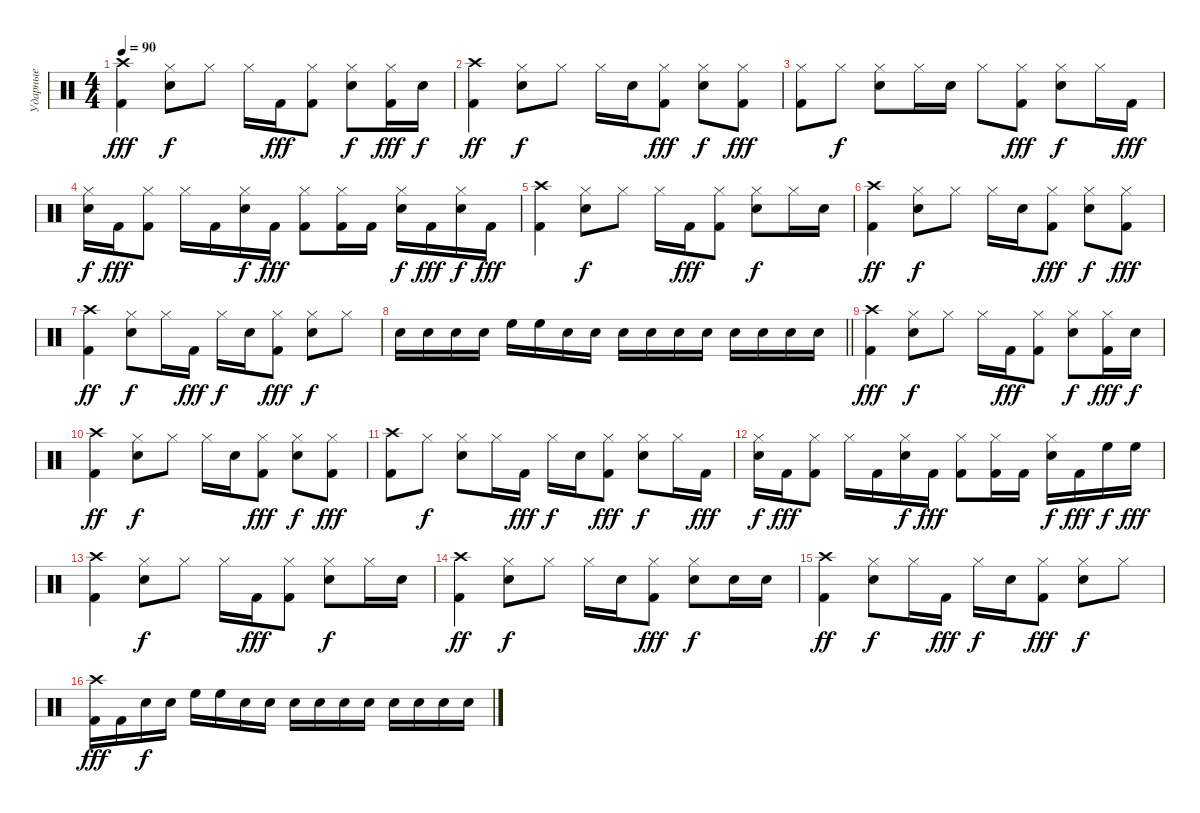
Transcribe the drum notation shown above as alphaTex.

\track ("Ударные" "Ударные") {instrument percussion}
\staff {score}
\articulation defaults
\ts (4 4)
\tempo 90
\clef neutral
\ks c
("Kick (hit) 2" "Crash high (hit)").4{dy fff} ("Snare (hit) 2" "Hi-Hat (closed)").8{dy f} "Hi-Hat (closed)".8 "Hi-Hat (closed)".16 "Kick (hit) 2".16{dy fff} ("Kick (hit) 2" "Hi-Hat (closed)").8 ("Snare (hit) 2" "Hi-Hat (closed)").8{dy f} ("Kick (hit) 2" "Hi-Hat (closed)").16{dy fff} "Snare (hit) 2".16{dy f} |
("Kick (hit) 2" "Crash high (hit)").4{dy ff} ("Snare (hit) 2" "Hi-Hat (closed)").8{dy f} "Hi-Hat (closed)".8 "Hi-Hat (closed)".16 "Snare (hit) 2".16 ("Kick (hit) 2" "Hi-Hat (closed)").8{dy fff} ("Snare (hit) 2" "Hi-Hat (closed)").8{dy f} ("Kick (hit) 2" "Hi-Hat (closed)").8{dy fff} |
("Kick (hit) 2" "Hi-Hat (closed)").8 "Hi-Hat (closed)".8{dy f} ("Snare (hit) 2" "Hi-Hat (closed)").8 "Hi-Hat (closed)".16 "Snare (hit) 2".16 "Hi-Hat (closed)".8 ("Kick (hit) 2" "Hi-Hat (closed)").8{dy fff} ("Snare (hit) 2" "Hi-Hat (closed)").8{dy f} "Hi-Hat (closed)".16 "Kick (hit) 2".16{dy fff} |
("Snare (hit) 2" "Hi-Hat (closed)").16{dy f} "Kick (hit) 2".16{dy fff} ("Kick (hit) 2" "Hi-Hat (closed)").8 "Hi-Hat (closed)".16 "Kick (hit) 2".16 ("Snare (hit) 2" "Hi-Hat (closed)").16{dy f} "Kick (hit) 2".16{dy fff} ("Kick (hit) 2" "Hi-Hat (closed)").8 ("Kick (hit) 2" "Hi-Hat (closed)").16 "Kick (hit) 2".16 ("Snare (hit) 2" "Hi-Hat (closed)").16{dy f} "Kick (hit) 2".16{dy fff} ("Snare (hit) 2" "Hi-Hat (closed)").16{dy f} "Kick (hit) 2".16{dy fff} |
("Kick (hit) 2" "Crash high (hit)").4 ("Snare (hit) 2" "Hi-Hat (closed)").8{dy f} "Hi-Hat (closed)".8 "Hi-Hat (closed)".16 "Kick (hit) 2".16{dy fff} ("Kick (hit) 2" "Hi-Hat (closed)").8 ("Snare (hit) 2" "Hi-Hat (closed)").8{dy f} "Hi-Hat (closed)".16 "Snare (hit) 2".16 |
("Kick (hit) 2" "Crash high (hit)").4{dy ff} ("Snare (hit) 2" "Hi-Hat (closed)").8{dy f} "Hi-Hat (closed)".8 "Hi-Hat (closed)".16 "Snare (hit) 2".16 ("Kick (hit) 2" "Hi-Hat (closed)").8{dy fff} ("Snare (hit) 2" "Hi-Hat (closed)").8{dy f} ("Kick (hit) 2" "Hi-Hat (closed)").8{dy fff} |
("Kick (hit) 2" "Crash high (hit)").4{dy ff} ("Snare (hit) 2" "Hi-Hat (closed)").8{dy f} "Hi-Hat (closed)".16 "Kick (hit) 2".16{dy fff} "Hi-Hat (closed)".16{dy f} "Snare (hit) 2".16 ("Kick (hit) 2" "Hi-Hat (closed)").8{dy fff} ("Snare (hit) 2" "Hi-Hat (closed)").8{dy f} "Hi-Hat (closed)".8 |
\barLineRight lightlight "Snare (hit) 2".16 "Snare (hit) 2".16 "Snare (hit) 2".16 "Snare (hit) 2".16 "High Floor Tom (hit)".16 "High Floor Tom (hit)".16 "Snare (hit) 2".16 "Snare (hit) 2".16 "Snare (hit) 2".16 "Snare (hit) 2".16 "Electric Snare (hit)".16 "Electric Snare (hit)".16 "Snare (hit) 2".16 "Snare (hit) 2".16 "Snare (hit) 2".16 "Snare (hit) 2".16
|
("Kick (hit) 2" "Crash high (hit)").4{dy fff} ("Snare (hit) 2" "Hi-Hat (closed)").8{dy f} "Hi-Hat (closed)".8 "Hi-Hat (closed)".16 "Kick (hit) 2".16{dy fff} ("Kick (hit) 2" "Hi-Hat (closed)").8 ("Snare (hit) 2" "Hi-Hat (closed)").8{dy f} ("Kick (hit) 2" "Hi-Hat (closed)").16{dy fff} "Snare (hit) 2".16{dy f} |
("Kick (hit) 2" "Crash high (hit)").4{dy ff} ("Snare (hit) 2" "Hi-Hat (closed)").8{dy f} "Hi-Hat (closed)".8 "Hi-Hat (closed)".16 "Snare (hit) 2".16 ("Kick (hit) 2" "Hi-Hat (closed)").8{dy fff} ("Snare (hit) 2" "Hi-Hat (closed)").8{dy f} ("Kick (hit) 2" "Hi-Hat (closed)").8{dy fff} |
("Kick (hit) 2" "Crash high (hit)").8 "Hi-Hat (closed)".8{dy f} ("Snare (hit) 2" "Hi-Hat (closed)").8 "Hi-Hat (closed)".16 "Kick (hit) 2".16{dy fff} "Hi-Hat (closed)".16{dy f} "Snare (hit) 2".16 ("Kick (hit) 2" "Hi-Hat (closed)").8{dy fff} ("Snare (hit) 2" "Hi-Hat (closed)").8{dy f} "Hi-Hat (closed)".16 "Kick (hit) 2".16{dy fff} |
("Snare (hit) 2" "Hi-Hat (closed)").16{dy f} "Kick (hit) 2".16{dy fff} ("Kick (hit) 2" "Hi-Hat (closed)").8 "Hi-Hat (closed)".16 "Kick (hit) 2".16 ("Snare (hit) 2" "Hi-Hat (closed)").16{dy f} "Kick (hit) 2".16{dy fff} ("Kick (hit) 2" "Hi-Hat (closed)").8 ("Kick (hit) 2" "Hi-Hat (closed)").16 "Kick (hit) 2".16 ("Snare (hit) 2" "Hi-Hat (closed)").16{dy f} "Kick (hit) 2".16{dy fff} "High Floor Tom (hit)".16{dy f} "High Floor Tom (hit)".16{dy fff} |
("Kick (hit) 2" "Crash high (hit)").4 ("Snare (hit) 2" "Hi-Hat (closed)").8{dy f} "Hi-Hat (closed)".8 "Hi-Hat (closed)".16 "Kick (hit) 2".16{dy fff} ("Kick (hit) 2" "Hi-Hat (closed)").8 ("Snare (hit) 2" "Hi-Hat (closed)").8{dy f} "Hi-Hat (closed)".16 "Snare (hit) 2".16 |
("Kick (hit) 2" "Crash high (hit)").4{dy ff} ("Snare (hit) 2" "Hi-Hat (closed)").8{dy f} "Hi-Hat (closed)".8 "Hi-Hat (closed)".16 "Snare (hit) 2".16 ("Kick (hit) 2" "Hi-Hat (closed)").8{dy fff} ("Snare (hit) 2" "Hi-Hat (closed)").8{dy f} "Snare (hit) 2".16 "Snare (hit) 2".16 |
("Kick (hit) 2" "Crash high (hit)").4{dy ff} ("Snare (hit) 2" "Hi-Hat (closed)").8{dy f} "Hi-Hat (closed)".16 "Kick (hit) 2".16{dy fff} "Hi-Hat (closed)".16{dy f} "Snare (hit) 2".16 ("Kick (hit) 2" "Hi-Hat (closed)").8{dy fff} ("Snare (hit) 2" "Hi-Hat (closed)").8{dy f} "Hi-Hat (closed)".8 |
("Kick (hit) 2" "Crash high (hit)").16{dy fff} "Kick (hit) 2".16 "Snare (hit) 2".16{dy f} "Snare (hit) 2".16 "High Floor Tom (hit)".16 "High Floor Tom (hit)".16 "Snare (hit) 2".16 "Snare (hit) 2".16 "Snare (hit) 2".16 "Snare (hit) 2".16 "Electric Snare (hit)".16 "Electric Snare (hit)".16 "Snare (hit) 2".16 "Snare (hit) 2".16 "Snare (hit) 2".16 "Snare (hit) 2".16
